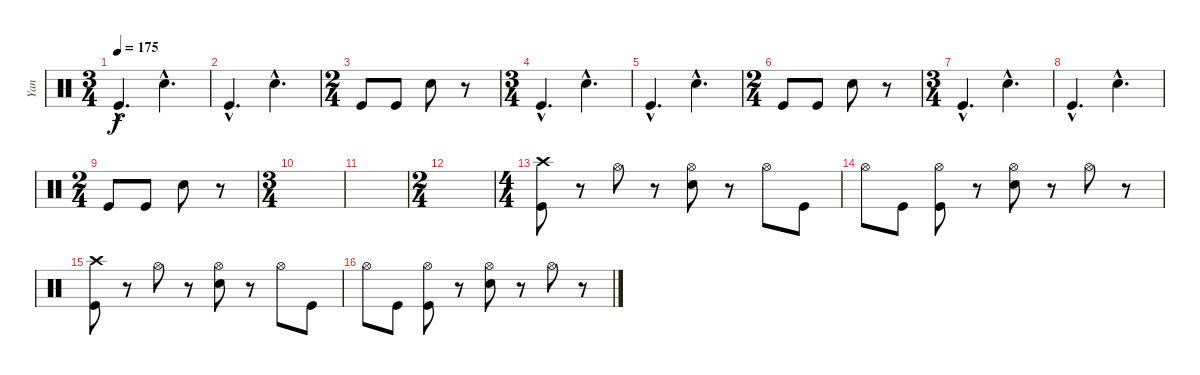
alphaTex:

\track ("Yan" "Yan") {instrument percussion}
\staff {score}
\articulation defaults
\ts (3 4)
\tempo 175
\clef neutral
\ks c "Kick (hit)"{hac}.4{d dy f} "Snare (hit) 2"{hac}.4{d}
|
"Kick (hit)"{hac}.4{d} "Snare (hit) 2"{hac}.4{d} |
\ts (2 4)
"Kick (hit)".8 "Kick (hit)".8 "Snare (hit) 2".8 r.8 |
\ts (3 4)
"Kick (hit)"{hac}.4{d} "Snare (hit) 2"{hac}.4{d} |
"Kick (hit)"{hac}.4{d} "Snare (hit) 2"{hac}.4{d} |
\ts (2 4)
"Kick (hit)".8 "Kick (hit)".8 "Snare (hit) 2".8 r.8 |
\ts (3 4)
"Kick (hit)"{hac}.4{d} "Snare (hit) 2"{hac}.4{d} |
"Kick (hit)"{hac}.4{d} "Snare (hit) 2"{hac}.4{d} |
\ts (2 4)
"Kick (hit)".8 "Kick (hit)".8 "Snare (hit) 2".8 r.8 |
\ts (3 4)
|
|
\ts (2 4)
|
\ts (4 4)
("Crash high (hit)" "Kick (hit)").8 r.8 "Hi-Hat (open)".8 r.8 ("Hi-Hat (open)" "Snare (hit) 2").8 r.8 "Hi-Hat (open)".8 "Kick (hit)".8 |
"Hi-Hat (open)".8 "Kick (hit)".8 ("Hi-Hat (open)" "Kick (hit)").8 r.8 ("Hi-Hat (open)" "Snare (hit) 2").8 r.8 "Hi-Hat (open)".8 r.8 |
("Crash high (hit)" "Kick (hit)").8 r.8 "Hi-Hat (open)".8 r.8 ("Hi-Hat (open)" "Snare (hit) 2").8 r.8 "Hi-Hat (open)".8 "Kick (hit)".8 |
"Hi-Hat (open)".8 "Kick (hit)".8 ("Hi-Hat (open)" "Kick (hit)").8 r.8 ("Hi-Hat (open)" "Snare (hit) 2").8 r.8 "Hi-Hat (open)".8 r.8
